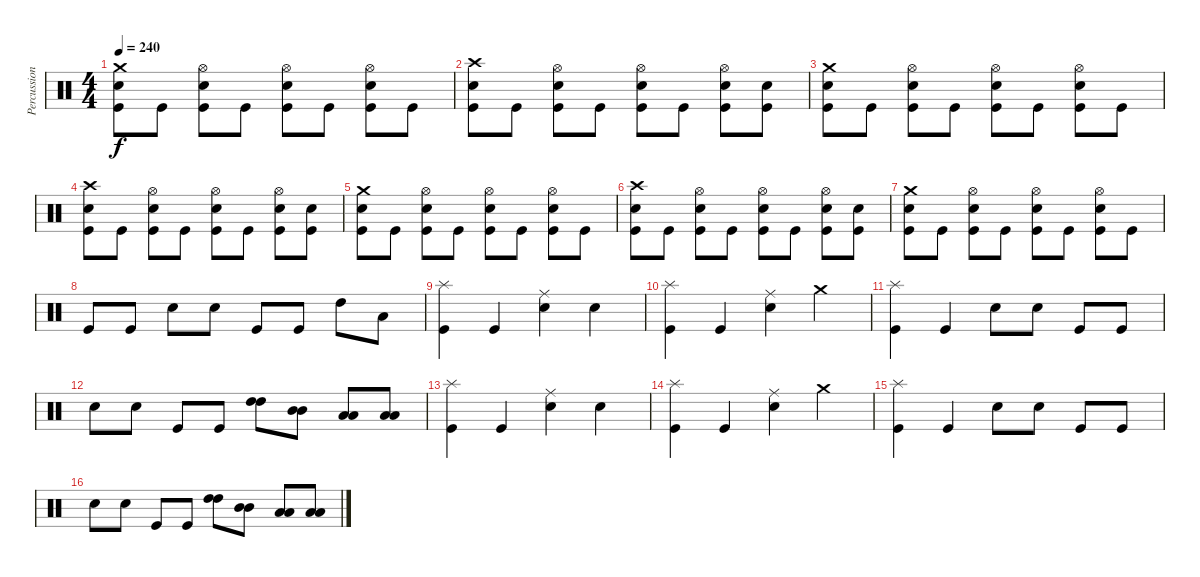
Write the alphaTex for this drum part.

\track ("Percussion" "Percussion") {instrument percussion}
\staff {score}
\articulation defaults
\ts (4 4)
\tempo 240
\clef neutral
\ks c
("Crash medium (hit)" "Snare (hit) 2" "Kick (hit)").8{dy f} "Kick (hit)".8 ("Hi-Hat (open)" "Snare (hit) 2" "Kick (hit)").8 "Kick (hit)".8 ("Hi-Hat (open)" "Snare (hit) 2" "Kick (hit)").8 "Kick (hit)".8 ("Hi-Hat (open)" "Snare (hit) 2" "Kick (hit)").8 "Kick (hit)".8 |
("Crash high (hit)" "Snare (hit) 2" "Kick (hit)").8 "Kick (hit)".8 ("Hi-Hat (open)" "Snare (hit) 2" "Kick (hit)").8 "Kick (hit)".8 ("Hi-Hat (open)" "Snare (hit) 2" "Kick (hit)").8 "Kick (hit)".8 ("Hi-Hat (open)" "Snare (hit) 2" "Kick (hit)").8 ("Snare (hit) 2" "Kick (hit)").8 |
("Crash medium (hit)" "Snare (hit) 2" "Kick (hit)").8 "Kick (hit)".8 ("Hi-Hat (open)" "Snare (hit) 2" "Kick (hit)").8 "Kick (hit)".8 ("Hi-Hat (open)" "Snare (hit) 2" "Kick (hit)").8 "Kick (hit)".8 ("Hi-Hat (open)" "Snare (hit) 2" "Kick (hit)").8 "Kick (hit)".8 |
("Crash high (hit)" "Snare (hit) 2" "Kick (hit)").8 "Kick (hit)".8 ("Hi-Hat (open)" "Snare (hit) 2" "Kick (hit)").8 "Kick (hit)".8 ("Hi-Hat (open)" "Snare (hit) 2" "Kick (hit)").8 "Kick (hit)".8 ("Hi-Hat (open)" "Snare (hit) 2" "Kick (hit)").8 ("Snare (hit) 2" "Kick (hit)").8 |
("Crash medium (hit)" "Snare (hit) 2" "Kick (hit)").8 "Kick (hit)".8 ("Hi-Hat (open)" "Snare (hit) 2" "Kick (hit)").8 "Kick (hit)".8 ("Hi-Hat (open)" "Snare (hit) 2" "Kick (hit)").8 "Kick (hit)".8 ("Hi-Hat (open)" "Snare (hit) 2" "Kick (hit)").8 "Kick (hit)".8 |
("Crash high (hit)" "Snare (hit) 2" "Kick (hit)").8 "Kick (hit)".8 ("Hi-Hat (open)" "Snare (hit) 2" "Kick (hit)").8 "Kick (hit)".8 ("Hi-Hat (open)" "Snare (hit) 2" "Kick (hit)").8 "Kick (hit)".8 ("Hi-Hat (open)" "Snare (hit) 2" "Kick (hit)").8 ("Snare (hit) 2" "Kick (hit)").8 |
("Crash medium (hit)" "Snare (hit) 2" "Kick (hit)").8 "Kick (hit)".8 ("Hi-Hat (open)" "Snare (hit) 2" "Kick (hit)").8 "Kick (hit)".8 ("Hi-Hat (open)" "Snare (hit) 2" "Kick (hit)").8 "Kick (hit)".8 ("Hi-Hat (open)" "Snare (hit) 2" "Kick (hit)").8 "Kick (hit)".8 |
"Kick (hit)".8 "Kick (hit)".8 "Snare (hit) 2".8 "Snare (hit) 2".8 "Kick (hit)".8 "Kick (hit)".8 "High Tom (hit)".8 "Low Tom (hit)".8 |
("Splash (hit)" "Kick (hit)").4 "Kick (hit)".4 ("Ride (middle)" "Snare (hit) 2").4 "Snare (hit) 2".4 |
("Splash (hit)" "Kick (hit)").4 "Kick (hit)".4 ("Ride (middle)" "Snare (hit) 2").4 "Crash medium (hit)".4 |
("Splash (hit)" "Kick (hit)").4 "Kick (hit)".4 "Snare (hit) 2".8 "Snare (hit) 2".8 "Kick (hit)".8 "Kick (hit)".8 |
"Snare (hit) 2".8 "Snare (hit) 2".8 "Kick (hit)".8 "Kick (hit)".8 ("High Tom (hit)" "High Tom (hit)").8 ("Mid Tom (hit)" "Mid Tom (hit)").8 ("Low Tom (hit)" "Low Tom (hit)").8 ("Low Floor Tom (hit)" "Low Floor Tom (hit)").8 |
("Splash (hit)" "Kick (hit)").4 "Kick (hit)".4 ("Ride (middle)" "Snare (hit) 2").4 "Snare (hit) 2".4 |
("Splash (hit)" "Kick (hit)").4 "Kick (hit)".4 ("Ride (middle)" "Snare (hit) 2").4 "Crash medium (hit)".4 |
("Splash (hit)" "Kick (hit)").4 "Kick (hit)".4 "Snare (hit) 2".8 "Snare (hit) 2".8 "Kick (hit)".8 "Kick (hit)".8 |
"Snare (hit) 2".8 "Snare (hit) 2".8 "Kick (hit)".8 "Kick (hit)".8 ("High Tom (hit)" "High Tom (hit)").8 ("Mid Tom (hit)" "Mid Tom (hit)").8 ("Low Tom (hit)" "Low Tom (hit)").8 ("Low Floor Tom (hit)" "Low Floor Tom (hit)").8
